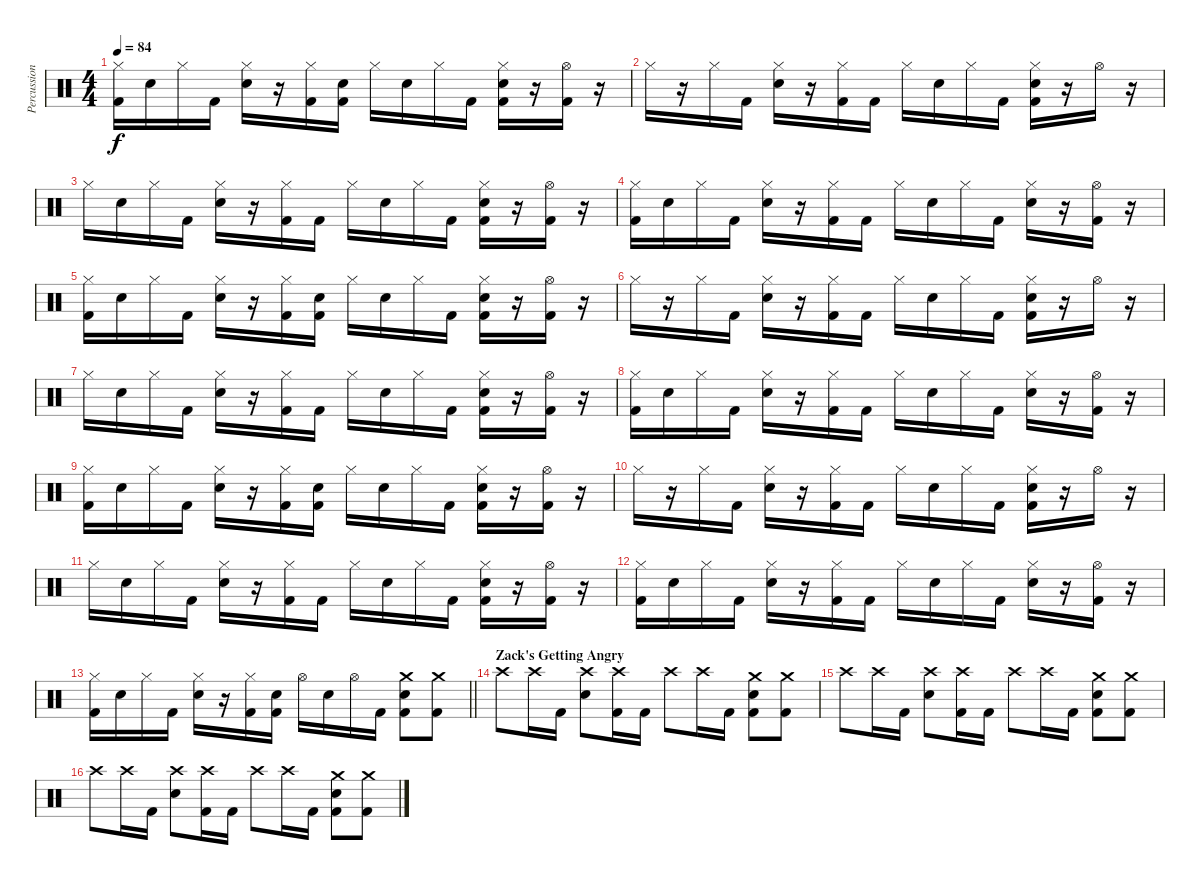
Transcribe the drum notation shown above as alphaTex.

\track ("Percussion" "Percussion") {instrument percussion}
\staff {score}
\articulation defaults
\ts (4 4)
\tempo 84
\clef neutral
\ks c
("Hi-Hat (closed)" "Kick (hit) 2").16{dy f} "Electric Snare (hit)".16 "Hi-Hat (closed)".16 "Kick (hit) 2".16 ("Hi-Hat (closed)" "Electric Snare (hit)").16 r.16 ("Hi-Hat (closed)" "Kick (hit) 2").16 ("Electric Snare (hit)" "Kick (hit) 2").16 "Hi-Hat (closed)".16 "Electric Snare (hit)".16 "Hi-Hat (closed)".16 "Kick (hit) 2".16 ("Hi-Hat (closed)" "Electric Snare (hit)" "Kick (hit) 2").16 r.16 ("Hi-Hat (open)" "Kick (hit) 2").16 r.16 |
"Hi-Hat (closed)".16 r.16 "Hi-Hat (closed)".16 "Kick (hit) 2".16 ("Hi-Hat (closed)" "Electric Snare (hit)").16 r.16 ("Hi-Hat (closed)" "Kick (hit) 2").16 "Kick (hit) 2".16 "Hi-Hat (closed)".16 "Electric Snare (hit)".16 "Hi-Hat (closed)".16 "Kick (hit) 2".16 ("Hi-Hat (closed)" "Electric Snare (hit)" "Kick (hit) 2").16 r.16 "Hi-Hat (open)".16 r.16 |
"Hi-Hat (closed)".16 "Electric Snare (hit)".16 "Hi-Hat (closed)".16 "Kick (hit) 2".16 ("Hi-Hat (closed)" "Electric Snare (hit)").16 r.16 ("Hi-Hat (closed)" "Kick (hit) 2").16 "Kick (hit) 2".16 "Hi-Hat (closed)".16 "Electric Snare (hit)".16 "Hi-Hat (closed)".16 "Kick (hit) 2".16 ("Hi-Hat (closed)" "Electric Snare (hit)" "Kick (hit) 2").16 r.16 ("Hi-Hat (open)" "Kick (hit) 2").16 r.16 |
("Hi-Hat (closed)" "Kick (hit) 2").16 "Electric Snare (hit)".16 "Hi-Hat (closed)".16 "Kick (hit) 2".16 ("Hi-Hat (closed)" "Electric Snare (hit)").16 r.16 ("Hi-Hat (closed)" "Kick (hit) 2").16 "Kick (hit) 2".16 "Hi-Hat (closed)".16 "Electric Snare (hit)".16 "Hi-Hat (closed)".16 "Kick (hit) 2".16 ("Hi-Hat (closed)" "Electric Snare (hit)").16 r.16 ("Hi-Hat (open)" "Kick (hit) 2").16 r.16 |
("Hi-Hat (closed)" "Kick (hit) 2").16 "Electric Snare (hit)".16 "Hi-Hat (closed)".16 "Kick (hit) 2".16 ("Hi-Hat (closed)" "Electric Snare (hit)").16 r.16 ("Hi-Hat (closed)" "Kick (hit) 2").16 ("Electric Snare (hit)" "Kick (hit) 2").16 "Hi-Hat (closed)".16 "Electric Snare (hit)".16 "Hi-Hat (closed)".16 "Kick (hit) 2".16 ("Hi-Hat (closed)" "Electric Snare (hit)" "Kick (hit) 2").16 r.16 ("Hi-Hat (open)" "Kick (hit) 2").16 r.16 |
"Hi-Hat (closed)".16 r.16 "Hi-Hat (closed)".16 "Kick (hit) 2".16 ("Hi-Hat (closed)" "Electric Snare (hit)").16 r.16 ("Hi-Hat (closed)" "Kick (hit) 2").16 "Kick (hit) 2".16 "Hi-Hat (closed)".16 "Electric Snare (hit)".16 "Hi-Hat (closed)".16 "Kick (hit) 2".16 ("Hi-Hat (closed)" "Electric Snare (hit)" "Kick (hit) 2").16 r.16 "Hi-Hat (open)".16 r.16 |
"Hi-Hat (closed)".16 "Electric Snare (hit)".16 "Hi-Hat (closed)".16 "Kick (hit) 2".16 ("Hi-Hat (closed)" "Electric Snare (hit)").16 r.16 ("Hi-Hat (closed)" "Kick (hit) 2").16 "Kick (hit) 2".16 "Hi-Hat (closed)".16 "Electric Snare (hit)".16 "Hi-Hat (closed)".16 "Kick (hit) 2".16 ("Hi-Hat (closed)" "Electric Snare (hit)" "Kick (hit) 2").16 r.16 ("Hi-Hat (open)" "Kick (hit) 2").16 r.16 |
("Hi-Hat (closed)" "Kick (hit) 2").16 "Electric Snare (hit)".16 "Hi-Hat (closed)".16 "Kick (hit) 2".16 ("Hi-Hat (closed)" "Electric Snare (hit)").16 r.16 ("Hi-Hat (closed)" "Kick (hit) 2").16 "Kick (hit) 2".16 "Hi-Hat (closed)".16 "Electric Snare (hit)".16 "Hi-Hat (closed)".16 "Kick (hit) 2".16 ("Hi-Hat (closed)" "Electric Snare (hit)").16 r.16 ("Hi-Hat (open)" "Kick (hit) 2").16 r.16 |
("Hi-Hat (closed)" "Kick (hit) 2").16 "Electric Snare (hit)".16 "Hi-Hat (closed)".16 "Kick (hit) 2".16 ("Hi-Hat (closed)" "Electric Snare (hit)").16 r.16 ("Hi-Hat (closed)" "Kick (hit) 2").16 ("Electric Snare (hit)" "Kick (hit) 2").16 "Hi-Hat (closed)".16 "Electric Snare (hit)".16 "Hi-Hat (closed)".16 "Kick (hit) 2".16 ("Hi-Hat (closed)" "Electric Snare (hit)" "Kick (hit) 2").16 r.16 ("Hi-Hat (open)" "Kick (hit) 2").16 r.16 |
"Hi-Hat (closed)".16 r.16 "Hi-Hat (closed)".16 "Kick (hit) 2".16 ("Hi-Hat (closed)" "Electric Snare (hit)").16 r.16 ("Hi-Hat (closed)" "Kick (hit) 2").16 "Kick (hit) 2".16 "Hi-Hat (closed)".16 "Electric Snare (hit)".16 "Hi-Hat (closed)".16 "Kick (hit) 2".16 ("Hi-Hat (closed)" "Electric Snare (hit)" "Kick (hit) 2").16 r.16 "Hi-Hat (open)".16 r.16 |
"Hi-Hat (closed)".16 "Electric Snare (hit)".16 "Hi-Hat (closed)".16 "Kick (hit) 2".16 ("Hi-Hat (closed)" "Electric Snare (hit)").16 r.16 ("Hi-Hat (closed)" "Kick (hit) 2").16 "Kick (hit) 2".16 "Hi-Hat (closed)".16 "Electric Snare (hit)".16 "Hi-Hat (closed)".16 "Kick (hit) 2".16 ("Hi-Hat (closed)" "Electric Snare (hit)" "Kick (hit) 2").16 r.16 ("Hi-Hat (open)" "Kick (hit) 2").16 r.16 |
("Hi-Hat (closed)" "Kick (hit) 2").16 "Electric Snare (hit)".16 "Hi-Hat (closed)".16 "Kick (hit) 2".16 ("Hi-Hat (closed)" "Electric Snare (hit)").16 r.16 ("Hi-Hat (closed)" "Kick (hit) 2").16 "Kick (hit) 2".16 "Hi-Hat (closed)".16 "Electric Snare (hit)".16 "Hi-Hat (closed)".16 "Kick (hit) 2".16 ("Hi-Hat (closed)" "Electric Snare (hit)").16 r.16 ("Hi-Hat (open)" "Kick (hit) 2").16 r.16 |
\barLineRight lightlight
("Hi-Hat (closed)" "Kick (hit) 2").16 "Electric Snare (hit)".16 "Hi-Hat (closed)".16 "Kick (hit) 2".16 ("Hi-Hat (closed)" "Electric Snare (hit)").16 r.16 ("Hi-Hat (closed)" "Kick (hit) 2").16 ("Electric Snare (hit)" "Kick (hit) 2").16 "Hi-Hat (open)".16 "Electric Snare (hit)".16 "Hi-Hat (open)".16 "Kick (hit) 2".16 ("Crash medium (hit)" "Electric Snare (hit)" "Kick (hit) 2").8 ("Crash medium (hit)" "Kick (hit) 2").8 |
\section ("" "Zack's Getting Angry")
"Crash high (hit)".8 "Crash high (hit)".16 "Kick (hit) 2".16 ("Crash high (hit)" "Electric Snare (hit)").8 ("Crash high (hit)" "Kick (hit) 2").16 "Kick (hit) 2".16 "Crash high (hit)".8 "Crash high (hit)".16 "Kick (hit) 2".16 ("Crash medium (hit)" "Electric Snare (hit)" "Kick (hit) 2").8 ("Crash medium (hit)" "Kick (hit) 2").8 |
"Crash high (hit)".8 "Crash high (hit)".16 "Kick (hit) 2".16 ("Crash high (hit)" "Electric Snare (hit)").8 ("Crash high (hit)" "Kick (hit) 2").16 "Kick (hit) 2".16 "Crash high (hit)".8 "Crash high (hit)".16 "Kick (hit) 2".16 ("Crash medium (hit)" "Electric Snare (hit)" "Kick (hit) 2").8 ("Crash medium (hit)" "Kick (hit) 2").8 |
"Crash high (hit)".8 "Crash high (hit)".16 "Kick (hit) 2".16 ("Crash high (hit)" "Electric Snare (hit)").8 ("Crash high (hit)" "Kick (hit) 2").16 "Kick (hit) 2".16 "Crash high (hit)".8 "Crash high (hit)".16 "Kick (hit) 2".16 ("Crash medium (hit)" "Electric Snare (hit)" "Kick (hit) 2").8 ("Crash medium (hit)" "Kick (hit) 2").8
